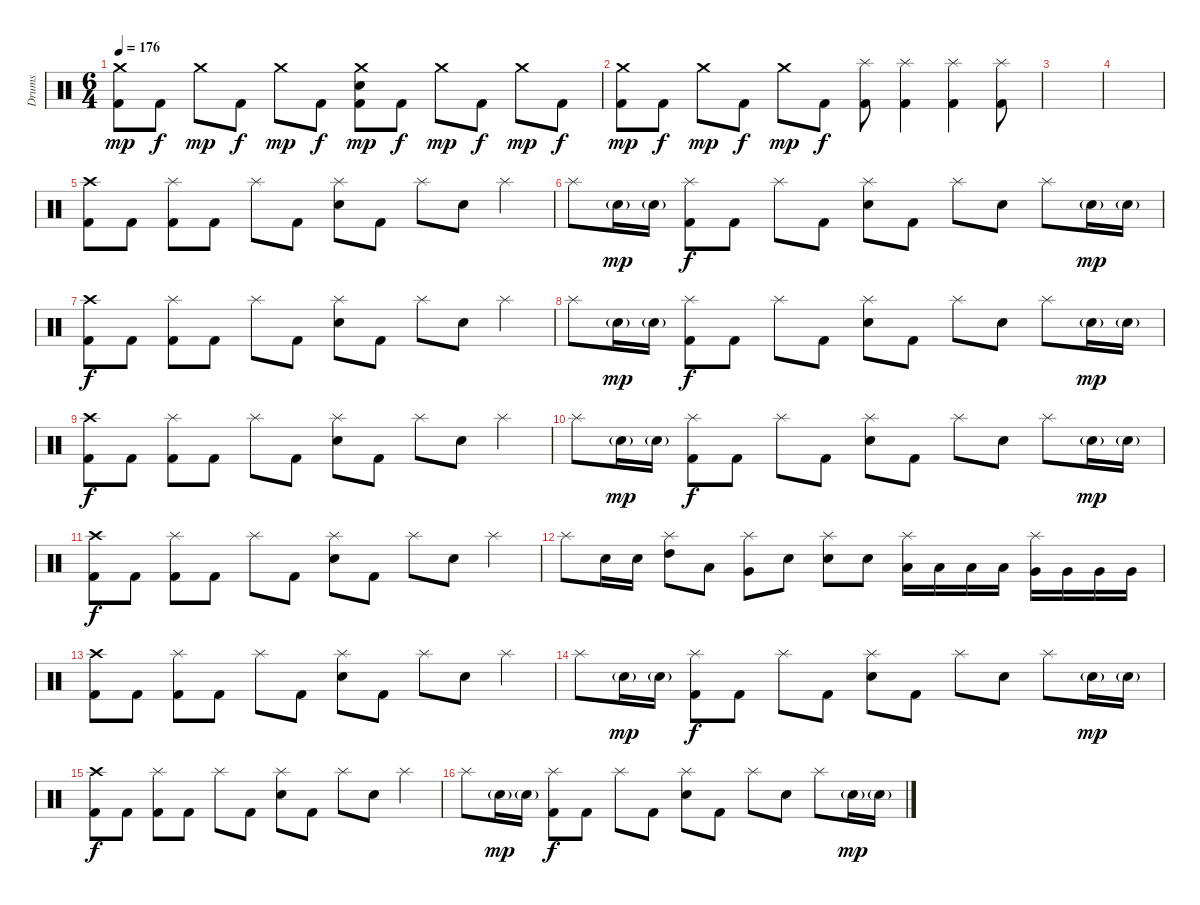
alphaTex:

\track ("Drums" "Drums") {instrument percussion}
\staff {score}
\articulation defaults
\ts (6 4)
\tempo 176
\clef neutral
\ks c
("Crash medium (hit)" "Kick (hit) 2").8{dy mp} "Kick (hit) 2".8{dy f} "Crash medium (hit)".8{dy mp} "Kick (hit) 2".8{dy f} "Crash medium (hit)".8{dy mp} "Kick (hit) 2".8{dy f} ("Crash medium (hit)" "Snare (hit) 2" "Kick (hit) 2").8{dy mp} "Kick (hit) 2".8{dy f} "Crash medium (hit)".8{dy mp} "Kick (hit) 2".8{dy f} "Crash medium (hit)".8{dy mp} "Kick (hit) 2".8{dy f} |
("Crash medium (hit)" "Kick (hit) 2").8{dy mp} "Kick (hit) 2".8{dy f} "Crash medium (hit)".8{dy mp} "Kick (hit) 2".8{dy f} "Crash medium (hit)".8{dy mp} "Kick (hit) 2".8{dy f} ("Splash (hit)" "Kick (hit) 2").8 ("Splash (hit)" "Kick (hit) 2").4 ("Splash (hit)" "Kick (hit) 2").4 ("Splash (hit)" "Kick (hit) 2").8 |
|
|
("Crash high (hit)" "Kick (hit) 2").8 "Kick (hit) 2".8 ("Splash (hit)" "Kick (hit) 2").8 "Kick (hit) 2".8 "Splash (hit)".8 "Kick (hit) 2".8 ("Splash (hit)" "Snare (hit) 2").8 "Kick (hit) 2".8 "Splash (hit)".8 "Snare (hit) 2".8 "Splash (hit)".4 |
"Splash (hit)".8 "Snare (hit) 2"{g}.16{dy mp} "Snare (hit) 2"{g}.16 ("Splash (hit)" "Kick (hit) 2").8{dy f} "Kick (hit) 2".8 "Splash (hit)".8 "Kick (hit) 2".8 ("Splash (hit)" "Snare (hit) 2").8 "Kick (hit) 2".8 "Splash (hit)".8 "Snare (hit) 2".8 "Splash (hit)".8 "Snare (hit) 2"{g}.16{dy mp} "Snare (hit) 2"{g}.16 |
("Crash high (hit)" "Kick (hit) 2").8{dy f} "Kick (hit) 2".8 ("Splash (hit)" "Kick (hit) 2").8 "Kick (hit) 2".8 "Splash (hit)".8 "Kick (hit) 2".8 ("Splash (hit)" "Snare (hit) 2").8 "Kick (hit) 2".8 "Splash (hit)".8 "Snare (hit) 2".8 "Splash (hit)".4 |
"Splash (hit)".8 "Snare (hit) 2"{g}.16{dy mp} "Snare (hit) 2"{g}.16 ("Splash (hit)" "Kick (hit) 2").8{dy f} "Kick (hit) 2".8 "Splash (hit)".8 "Kick (hit) 2".8 ("Splash (hit)" "Snare (hit) 2").8 "Kick (hit) 2".8 "Splash (hit)".8 "Snare (hit) 2".8 "Splash (hit)".8 "Snare (hit) 2"{g}.16{dy mp} "Snare (hit) 2"{g}.16 |
("Crash high (hit)" "Kick (hit) 2").8{dy f} "Kick (hit) 2".8 ("Splash (hit)" "Kick (hit) 2").8 "Kick (hit) 2".8 "Splash (hit)".8 "Kick (hit) 2".8 ("Splash (hit)" "Snare (hit) 2").8 "Kick (hit) 2".8 "Splash (hit)".8 "Snare (hit) 2".8 "Splash (hit)".4 |
"Splash (hit)".8 "Snare (hit) 2"{g}.16{dy mp} "Snare (hit) 2"{g}.16 ("Splash (hit)" "Kick (hit) 2").8{dy f} "Kick (hit) 2".8 "Splash (hit)".8 "Kick (hit) 2".8 ("Splash (hit)" "Snare (hit) 2").8 "Kick (hit) 2".8 "Splash (hit)".8 "Snare (hit) 2".8 "Splash (hit)".8 "Snare (hit) 2"{g}.16{dy mp} "Snare (hit) 2"{g}.16 |
("Crash high (hit)" "Kick (hit) 2").8{dy f} "Kick (hit) 2".8 ("Splash (hit)" "Kick (hit) 2").8 "Kick (hit) 2".8 "Splash (hit)".8 "Kick (hit) 2".8 ("Splash (hit)" "Snare (hit) 2").8 "Kick (hit) 2".8 "Splash (hit)".8 "Snare (hit) 2".8 "Splash (hit)".4 |
"Splash (hit)".8 "Snare (hit) 2".16 "Snare (hit) 2".16 ("Splash (hit)" "High Tom (hit)").8 "Low Tom (hit)".8 ("Splash (hit)" "Very Low Tom (hit)").8 "Snare (hit) 2".8 ("Splash (hit)" "Snare (hit) 2").8 "Snare (hit) 2".8 ("Splash (hit)" "Low Tom (hit)").16 "Low Tom (hit)".16 "Low Tom (hit)".16 "Low Tom (hit)".16 ("Splash (hit)" "Very Low Tom (hit)").16 "Very Low Tom (hit)".16 "Very Low Tom (hit)".16 "Very Low Tom (hit)".16 |
("Crash high (hit)" "Kick (hit) 2").8 "Kick (hit) 2".8 ("Splash (hit)" "Kick (hit) 2").8 "Kick (hit) 2".8 "Splash (hit)".8 "Kick (hit) 2".8 ("Splash (hit)" "Snare (hit) 2").8 "Kick (hit) 2".8 "Splash (hit)".8 "Snare (hit) 2".8 "Splash (hit)".4 |
"Splash (hit)".8 "Snare (hit) 2"{g}.16{dy mp} "Snare (hit) 2"{g}.16 ("Splash (hit)" "Kick (hit) 2").8{dy f} "Kick (hit) 2".8 "Splash (hit)".8 "Kick (hit) 2".8 ("Splash (hit)" "Snare (hit) 2").8 "Kick (hit) 2".8 "Splash (hit)".8 "Snare (hit) 2".8 "Splash (hit)".8 "Snare (hit) 2"{g}.16{dy mp} "Snare (hit) 2"{g}.16 |
("Crash high (hit)" "Kick (hit) 2").8{dy f} "Kick (hit) 2".8 ("Splash (hit)" "Kick (hit) 2").8 "Kick (hit) 2".8 "Splash (hit)".8 "Kick (hit) 2".8 ("Splash (hit)" "Snare (hit) 2").8 "Kick (hit) 2".8 "Splash (hit)".8 "Snare (hit) 2".8 "Splash (hit)".4 |
"Splash (hit)".8 "Snare (hit) 2"{g}.16{dy mp} "Snare (hit) 2"{g}.16 ("Splash (hit)" "Kick (hit) 2").8{dy f} "Kick (hit) 2".8 "Splash (hit)".8 "Kick (hit) 2".8 ("Splash (hit)" "Snare (hit) 2").8 "Kick (hit) 2".8 "Splash (hit)".8 "Snare (hit) 2".8 "Splash (hit)".8 "Snare (hit) 2"{g}.16{dy mp} "Snare (hit) 2"{g}.16
